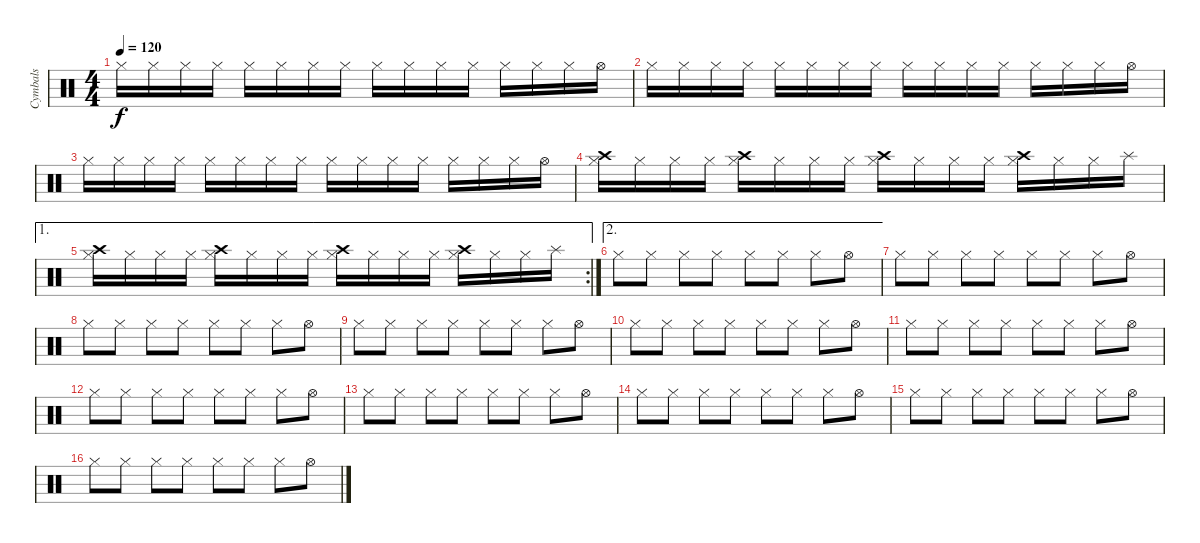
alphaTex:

\track ("Cymbals" "Cymbals") {instrument percussion}
\staff {score}
\articulation defaults
\ts (4 4)
\tempo 120
\clef neutral
\ks c "Hi-Hat (closed)".16{dy f} "Hi-Hat (closed)".16 "Hi-Hat (closed)".16 "Hi-Hat (closed)".16 "Hi-Hat (closed)".16 "Hi-Hat (closed)".16 "Hi-Hat (closed)".16 "Hi-Hat (closed)".16 "Hi-Hat (closed)".16 "Hi-Hat (closed)".16 "Hi-Hat (closed)".16 "Hi-Hat (closed)".16 "Hi-Hat (closed)".16 "Hi-Hat (closed)".16 "Hi-Hat (closed)".16 "Hi-Hat (open)".16
|
"Hi-Hat (closed)".16 "Hi-Hat (closed)".16 "Hi-Hat (closed)".16 "Hi-Hat (closed)".16 "Hi-Hat (closed)".16 "Hi-Hat (closed)".16 "Hi-Hat (closed)".16 "Hi-Hat (closed)".16 "Hi-Hat (closed)".16 "Hi-Hat (closed)".16 "Hi-Hat (closed)".16 "Hi-Hat (closed)".16 "Hi-Hat (closed)".16 "Hi-Hat (closed)".16 "Hi-Hat (closed)".16 "Hi-Hat (open)".16 |
"Hi-Hat (closed)".16 "Hi-Hat (closed)".16 "Hi-Hat (closed)".16 "Hi-Hat (closed)".16 "Hi-Hat (closed)".16 "Hi-Hat (closed)".16 "Hi-Hat (closed)".16 "Hi-Hat (closed)".16 "Hi-Hat (closed)".16 "Hi-Hat (closed)".16 "Hi-Hat (closed)".16 "Hi-Hat (closed)".16 "Hi-Hat (closed)".16 "Hi-Hat (closed)".16 "Hi-Hat (closed)".16 "Hi-Hat (open)".16 |
("Crash high (hit)" "Hi-Hat (closed)").16 "Hi-Hat (closed)".16 "Hi-Hat (closed)".16 "Hi-Hat (closed)".16 ("Crash high (hit)" "Hi-Hat (closed)").16 "Hi-Hat (closed)".16 "Hi-Hat (closed)".16 "Hi-Hat (closed)".16 ("Crash high (hit)" "Hi-Hat (closed)").16 "Hi-Hat (closed)".16 "Hi-Hat (closed)".16 "Hi-Hat (closed)".16 ("Crash high (hit)" "Hi-Hat (closed)").16 "Hi-Hat (closed)".16 "Hi-Hat (closed)".16 "Splash (hit)".16 |
\ae 1
\rc 2
("Crash high (hit)" "Hi-Hat (closed)").16 "Hi-Hat (closed)".16 "Hi-Hat (closed)".16 "Hi-Hat (closed)".16 ("Crash high (hit)" "Hi-Hat (closed)").16 "Hi-Hat (closed)".16 "Hi-Hat (closed)".16 "Hi-Hat (closed)".16 ("Crash high (hit)" "Hi-Hat (closed)").16 "Hi-Hat (closed)".16 "Hi-Hat (closed)".16 "Hi-Hat (closed)".16 ("Crash high (hit)" "Hi-Hat (closed)").16 "Hi-Hat (closed)".16 "Hi-Hat (closed)".16 "Splash (hit)".16 |
\ae 2 "Hi-Hat (closed)".8 "Hi-Hat (closed)".8 "Hi-Hat (closed)".8 "Hi-Hat (closed)".8 "Hi-Hat (closed)".8 "Hi-Hat (closed)".8 "Hi-Hat (closed)".8 "Hi-Hat (open)".8
|
"Hi-Hat (closed)".8 "Hi-Hat (closed)".8 "Hi-Hat (closed)".8 "Hi-Hat (closed)".8 "Hi-Hat (closed)".8 "Hi-Hat (closed)".8 "Hi-Hat (closed)".8 "Hi-Hat (open)".8 |
"Hi-Hat (closed)".8 "Hi-Hat (closed)".8 "Hi-Hat (closed)".8 "Hi-Hat (closed)".8 "Hi-Hat (closed)".8 "Hi-Hat (closed)".8 "Hi-Hat (closed)".8 "Hi-Hat (open)".8 |
"Hi-Hat (closed)".8 "Hi-Hat (closed)".8 "Hi-Hat (closed)".8 "Hi-Hat (closed)".8 "Hi-Hat (closed)".8 "Hi-Hat (closed)".8 "Hi-Hat (closed)".8 "Hi-Hat (open)".8 |
"Hi-Hat (closed)".8 "Hi-Hat (closed)".8 "Hi-Hat (closed)".8 "Hi-Hat (closed)".8 "Hi-Hat (closed)".8 "Hi-Hat (closed)".8 "Hi-Hat (closed)".8 "Hi-Hat (open)".8 |
"Hi-Hat (closed)".8 "Hi-Hat (closed)".8 "Hi-Hat (closed)".8 "Hi-Hat (closed)".8 "Hi-Hat (closed)".8 "Hi-Hat (closed)".8 "Hi-Hat (closed)".8 "Hi-Hat (open)".8 |
"Hi-Hat (closed)".8 "Hi-Hat (closed)".8 "Hi-Hat (closed)".8 "Hi-Hat (closed)".8 "Hi-Hat (closed)".8 "Hi-Hat (closed)".8 "Hi-Hat (closed)".8 "Hi-Hat (open)".8 |
"Hi-Hat (closed)".8 "Hi-Hat (closed)".8 "Hi-Hat (closed)".8 "Hi-Hat (closed)".8 "Hi-Hat (closed)".8 "Hi-Hat (closed)".8 "Hi-Hat (closed)".8 "Hi-Hat (open)".8 |
"Hi-Hat (closed)".8 "Hi-Hat (closed)".8 "Hi-Hat (closed)".8 "Hi-Hat (closed)".8 "Hi-Hat (closed)".8 "Hi-Hat (closed)".8 "Hi-Hat (closed)".8 "Hi-Hat (open)".8 |
"Hi-Hat (closed)".8 "Hi-Hat (closed)".8 "Hi-Hat (closed)".8 "Hi-Hat (closed)".8 "Hi-Hat (closed)".8 "Hi-Hat (closed)".8 "Hi-Hat (closed)".8 "Hi-Hat (open)".8 |
"Hi-Hat (closed)".8 "Hi-Hat (closed)".8 "Hi-Hat (closed)".8 "Hi-Hat (closed)".8 "Hi-Hat (closed)".8 "Hi-Hat (closed)".8 "Hi-Hat (closed)".8 "Hi-Hat (open)".8
